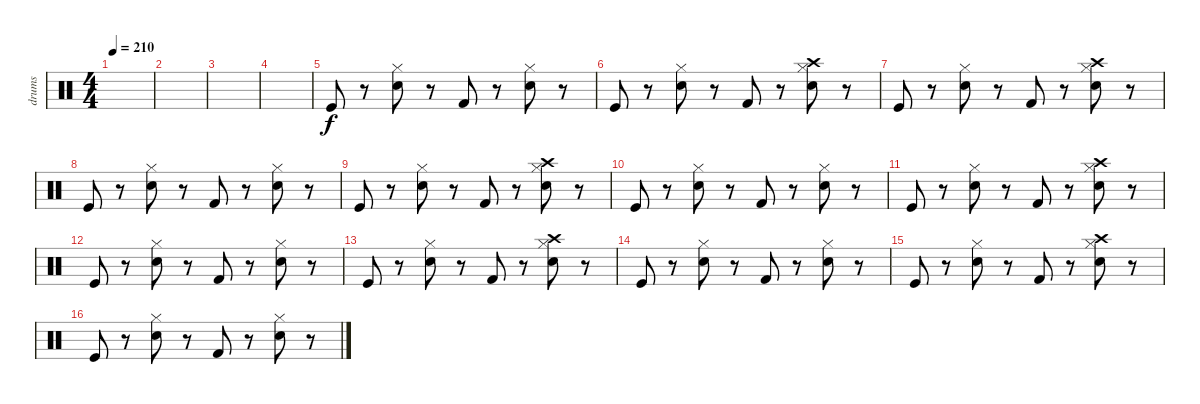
\track ("drums" "drums") {instrument percussion}
\staff {score}
\articulation defaults
\ts (4 4)
\tempo 210
\clef neutral
\ks c
|
|
|
|
"Kick (hit)".8 r.8 ("Electric Snare (hit)" "Hi-Hat (closed)").8 r.8 "Kick (hit) 2".8 r.8 ("Electric Snare (hit)" "Hi-Hat (closed)").8 r.8 |
"Kick (hit)".8 r.8 ("Electric Snare (hit)" "Hi-Hat (closed)").8 r.8 "Kick (hit) 2".8 r.8 ("Electric Snare (hit)" "Hi-Hat (closed)" "Crash high (hit)").8 r.8 |
"Kick (hit)".8 r.8 ("Electric Snare (hit)" "Hi-Hat (closed)").8 r.8 "Kick (hit) 2".8 r.8 ("Electric Snare (hit)" "Hi-Hat (closed)" "Crash high (hit)").8 r.8 |
"Kick (hit)".8 r.8 ("Electric Snare (hit)" "Hi-Hat (closed)").8 r.8 "Kick (hit) 2".8 r.8 ("Electric Snare (hit)" "Hi-Hat (closed)").8 r.8 |
"Kick (hit)".8 r.8 ("Electric Snare (hit)" "Hi-Hat (closed)").8 r.8 "Kick (hit) 2".8 r.8 ("Electric Snare (hit)" "Hi-Hat (closed)" "Crash high (hit)").8 r.8 |
"Kick (hit)".8 r.8 ("Electric Snare (hit)" "Hi-Hat (closed)").8 r.8 "Kick (hit) 2".8 r.8 ("Electric Snare (hit)" "Hi-Hat (closed)").8 r.8 |
"Kick (hit)".8 r.8 ("Electric Snare (hit)" "Hi-Hat (closed)").8 r.8 "Kick (hit) 2".8 r.8 ("Electric Snare (hit)" "Hi-Hat (closed)" "Crash high (hit)").8 r.8 |
"Kick (hit)".8 r.8 ("Electric Snare (hit)" "Hi-Hat (closed)").8 r.8 "Kick (hit) 2".8 r.8 ("Electric Snare (hit)" "Hi-Hat (closed)").8 r.8 |
"Kick (hit)".8 r.8 ("Electric Snare (hit)" "Hi-Hat (closed)").8 r.8 "Kick (hit) 2".8 r.8 ("Electric Snare (hit)" "Hi-Hat (closed)" "Crash high (hit)").8 r.8 |
"Kick (hit)".8 r.8 ("Electric Snare (hit)" "Hi-Hat (closed)").8 r.8 "Kick (hit) 2".8 r.8 ("Electric Snare (hit)" "Hi-Hat (closed)").8 r.8 |
"Kick (hit)".8 r.8 ("Electric Snare (hit)" "Hi-Hat (closed)").8 r.8 "Kick (hit) 2".8 r.8 ("Electric Snare (hit)" "Hi-Hat (closed)" "Crash high (hit)").8 r.8 |
"Kick (hit)".8 r.8 ("Electric Snare (hit)" "Hi-Hat (closed)").8 r.8 "Kick (hit) 2".8 r.8 ("Electric Snare (hit)" "Hi-Hat (closed)").8 r.8
